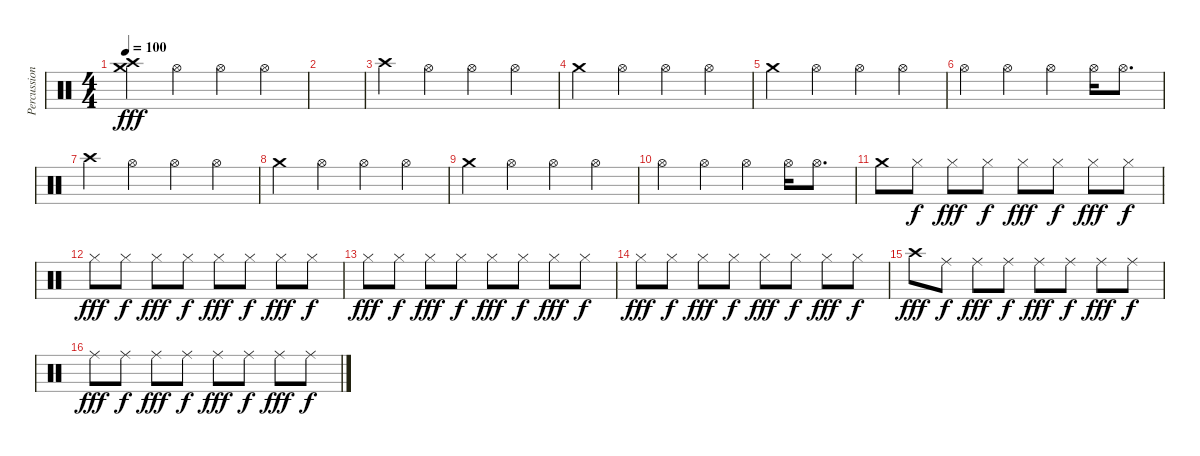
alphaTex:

\track ("Percussion" "Percussion") {instrument percussion}
\staff {score}
\articulation defaults
\ts (4 4)
\tempo 100
\clef neutral
\ks c
("Crash high (hit)" "Crash medium (hit)").4{dy fff} "Hi-Hat (open)".4 "Hi-Hat (open)".4 "Hi-Hat (open)".4 |
|
"Crash high (hit)".4 "Hi-Hat (open)".4 "Hi-Hat (open)".4 "Hi-Hat (open)".4 |
"Crash medium (hit)".4 "Hi-Hat (open)".4 "Hi-Hat (open)".4 "Hi-Hat (open)".4 |
"Crash medium (hit)".4 "Hi-Hat (open)".4 "Hi-Hat (open)".4 "Hi-Hat (open)".4 |
"Hi-Hat (open)".4 "Hi-Hat (open)".4 "Hi-Hat (open)".4 "Hi-Hat (open)".16 "Hi-Hat (open)".8{d} |
"Crash high (hit)".4 "Hi-Hat (open)".4 "Hi-Hat (open)".4 "Hi-Hat (open)".4 |
"Crash medium (hit)".4 "Hi-Hat (open)".4 "Hi-Hat (open)".4 "Hi-Hat (open)".4 |
"Crash medium (hit)".4 "Hi-Hat (open)".4 "Hi-Hat (open)".4 "Hi-Hat (open)".4 |
"Hi-Hat (open)".4 "Hi-Hat (open)".4 "Hi-Hat (open)".4 "Hi-Hat (open)".16 "Hi-Hat (open)".8{d} |
"Crash medium (hit)".8 "Hi-Hat (closed)".8{dy f} "Hi-Hat (closed)".8{dy fff} "Hi-Hat (closed)".8{dy f} "Hi-Hat (closed)".8{dy fff} "Hi-Hat (closed)".8{dy f} "Hi-Hat (closed)".8{dy fff} "Hi-Hat (closed)".8{dy f} |
"Hi-Hat (closed)".8{dy fff} "Hi-Hat (closed)".8{dy f} "Hi-Hat (closed)".8{dy fff} "Hi-Hat (closed)".8{dy f} "Hi-Hat (closed)".8{dy fff} "Hi-Hat (closed)".8{dy f} "Hi-Hat (closed)".8{dy fff} "Hi-Hat (closed)".8{dy f} |
"Hi-Hat (closed)".8{dy fff} "Hi-Hat (closed)".8{dy f} "Hi-Hat (closed)".8{dy fff} "Hi-Hat (closed)".8{dy f} "Hi-Hat (closed)".8{dy fff} "Hi-Hat (closed)".8{dy f} "Hi-Hat (closed)".8{dy fff} "Hi-Hat (closed)".8{dy f} |
"Hi-Hat (closed)".8{dy fff} "Hi-Hat (closed)".8{dy f} "Hi-Hat (closed)".8{dy fff} "Hi-Hat (closed)".8{dy f} "Hi-Hat (closed)".8{dy fff} "Hi-Hat (closed)".8{dy f} "Hi-Hat (closed)".8{dy fff} "Hi-Hat (closed)".8{dy f} |
"Crash high (hit)".8{dy fff} "Ride (middle)".8{dy f} "Ride (middle)".8{dy fff} "Ride (middle)".8{dy f} "Ride (middle)".8{dy fff} "Ride (middle)".8{dy f} "Ride (middle)".8{dy fff} "Ride (middle)".8{dy f} |
"Ride (middle)".8{dy fff} "Ride (middle)".8{dy f} "Ride (middle)".8{dy fff} "Ride (middle)".8{dy f} "Ride (middle)".8{dy fff} "Ride (middle)".8{dy f} "Ride (middle)".8{dy fff} "Ride (middle)".8{dy f}
